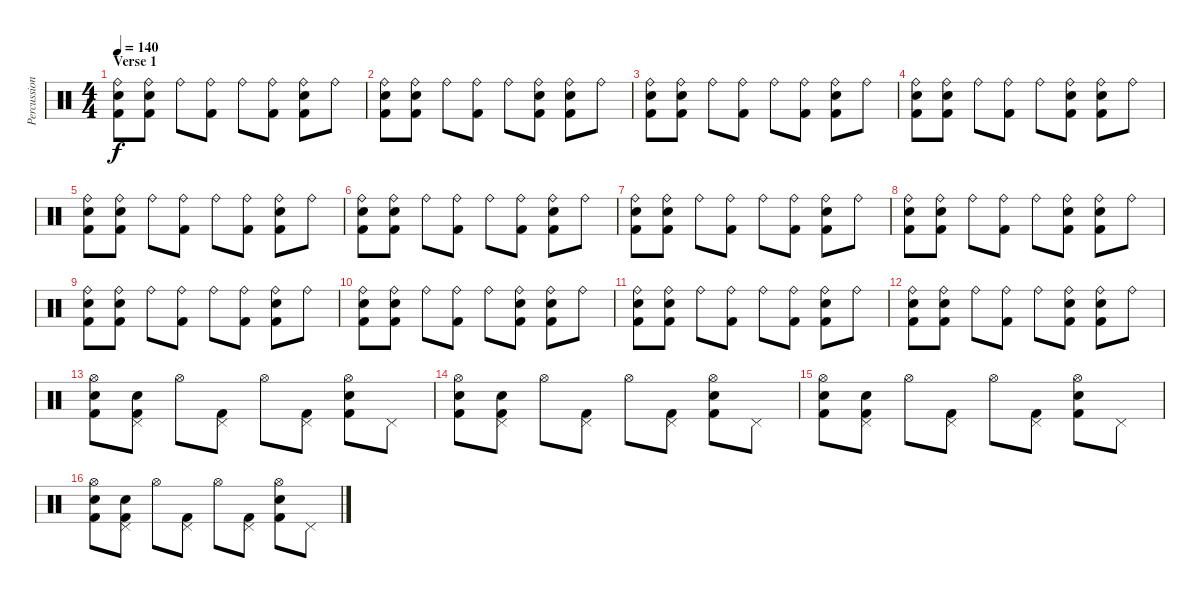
\track ("Percussion" "Percussion") {instrument percussion}
\staff {score}
\articulation defaults
\ts (4 4)
\section ("" "Verse 1")
\tempo 140
\clef neutral
\ks c
("Ride (bell)" "Electric Snare (hit)" "Kick (hit) 2").8{dy f} ("Ride (bell)" "Electric Snare (hit)" "Kick (hit) 2").8 "Ride (bell)".8 ("Ride (bell)" "Kick (hit) 2").8 "Ride (bell)".8 ("Ride (bell)" "Kick (hit) 2").8 ("Ride (bell)" "Electric Snare (hit)" "Kick (hit) 2").8 "Ride (bell)".8 |
("Ride (bell)" "Electric Snare (hit)" "Kick (hit) 2").8 ("Ride (bell)" "Electric Snare (hit)" "Kick (hit) 2").8 "Ride (bell)".8 ("Ride (bell)" "Kick (hit) 2").8 "Ride (bell)".8 ("Ride (bell)" "Electric Snare (hit)" "Kick (hit) 2").8 ("Ride (bell)" "Electric Snare (hit)" "Kick (hit) 2").8 "Ride (bell)".8 |
("Ride (bell)" "Electric Snare (hit)" "Kick (hit) 2").8 ("Ride (bell)" "Electric Snare (hit)" "Kick (hit) 2").8 "Ride (bell)".8 ("Ride (bell)" "Kick (hit) 2").8 "Ride (bell)".8 ("Ride (bell)" "Kick (hit) 2").8 ("Ride (bell)" "Electric Snare (hit)" "Kick (hit) 2").8 "Ride (bell)".8 |
("Ride (bell)" "Electric Snare (hit)" "Kick (hit) 2").8 ("Ride (bell)" "Electric Snare (hit)" "Kick (hit) 2").8 "Ride (bell)".8 ("Ride (bell)" "Kick (hit) 2").8 "Ride (bell)".8 ("Ride (bell)" "Electric Snare (hit)" "Kick (hit) 2").8 ("Ride (bell)" "Electric Snare (hit)" "Kick (hit) 2").8 "Ride (bell)".8 |
("Ride (bell)" "Electric Snare (hit)" "Kick (hit) 2").8 ("Ride (bell)" "Electric Snare (hit)" "Kick (hit) 2").8 "Ride (bell)".8 ("Ride (bell)" "Kick (hit) 2").8 "Ride (bell)".8 ("Ride (bell)" "Kick (hit) 2").8 ("Ride (bell)" "Electric Snare (hit)" "Kick (hit) 2").8 "Ride (bell)".8 |
("Ride (bell)" "Electric Snare (hit)" "Kick (hit) 2").8 ("Ride (bell)" "Electric Snare (hit)" "Kick (hit) 2").8 "Ride (bell)".8 ("Ride (bell)" "Kick (hit) 2").8 "Ride (bell)".8 ("Ride (bell)" "Kick (hit) 2").8 ("Ride (bell)" "Electric Snare (hit)" "Kick (hit) 2").8 "Ride (bell)".8 |
("Ride (bell)" "Electric Snare (hit)" "Kick (hit) 2").8 ("Ride (bell)" "Electric Snare (hit)" "Kick (hit) 2").8 "Ride (bell)".8 ("Ride (bell)" "Kick (hit) 2").8 "Ride (bell)".8 ("Ride (bell)" "Kick (hit) 2").8 ("Ride (bell)" "Electric Snare (hit)" "Kick (hit) 2").8 "Ride (bell)".8 |
("Ride (bell)" "Electric Snare (hit)" "Kick (hit) 2").8 ("Ride (bell)" "Electric Snare (hit)" "Kick (hit) 2").8 "Ride (bell)".8 ("Ride (bell)" "Kick (hit) 2").8 "Ride (bell)".8 ("Ride (bell)" "Electric Snare (hit)" "Kick (hit) 2").8 ("Ride (bell)" "Electric Snare (hit)" "Kick (hit) 2").8 "Ride (bell)".8 |
("Ride (bell)" "Electric Snare (hit)" "Kick (hit) 2").8 ("Ride (bell)" "Electric Snare (hit)" "Kick (hit) 2").8 "Ride (bell)".8 ("Ride (bell)" "Kick (hit) 2").8 "Ride (bell)".8 ("Ride (bell)" "Kick (hit) 2").8 ("Ride (bell)" "Electric Snare (hit)" "Kick (hit) 2").8 "Ride (bell)".8 |
("Ride (bell)" "Electric Snare (hit)" "Kick (hit) 2").8 ("Ride (bell)" "Electric Snare (hit)" "Kick (hit) 2").8 "Ride (bell)".8 ("Ride (bell)" "Kick (hit) 2").8 "Ride (bell)".8 ("Ride (bell)" "Electric Snare (hit)" "Kick (hit) 2").8 ("Ride (bell)" "Electric Snare (hit)" "Kick (hit) 2").8 "Ride (bell)".8 |
("Ride (bell)" "Electric Snare (hit)" "Kick (hit) 2").8 ("Ride (bell)" "Electric Snare (hit)" "Kick (hit) 2").8 "Ride (bell)".8 ("Ride (bell)" "Kick (hit) 2").8 "Ride (bell)".8 ("Ride (bell)" "Kick (hit) 2").8 ("Ride (bell)" "Electric Snare (hit)" "Kick (hit) 2").8 "Ride (bell)".8 |
("Ride (bell)" "Electric Snare (hit)" "Kick (hit) 2").8 ("Ride (bell)" "Electric Snare (hit)" "Kick (hit) 2").8 "Ride (bell)".8 ("Ride (bell)" "Kick (hit) 2").8 "Ride (bell)".8 ("Ride (bell)" "Electric Snare (hit)" "Kick (hit) 2").8 ("Ride (bell)" "Electric Snare (hit)" "Kick (hit) 2").8 "Ride (bell)".8 |
("Hi-Hat (open)" "Electric Snare (hit)" "Kick (hit) 2").8 ("Pedal Hi-Hat (hit)" "Electric Snare (hit)" "Kick (hit) 2").8 "Hi-Hat (open)".8 ("Pedal Hi-Hat (hit)" "Kick (hit) 2").8 "Hi-Hat (open)".8 ("Pedal Hi-Hat (hit)" "Kick (hit) 2").8 ("Hi-Hat (open)" "Electric Snare (hit)" "Kick (hit) 2").8 "Pedal Hi-Hat (hit)".8 |
("Hi-Hat (open)" "Electric Snare (hit)" "Kick (hit) 2").8 ("Pedal Hi-Hat (hit)" "Electric Snare (hit)" "Kick (hit) 2").8 "Hi-Hat (open)".8 ("Pedal Hi-Hat (hit)" "Kick (hit) 2").8 "Hi-Hat (open)".8 ("Pedal Hi-Hat (hit)" "Kick (hit) 2").8 ("Hi-Hat (open)" "Electric Snare (hit)" "Kick (hit) 2").8 "Pedal Hi-Hat (hit)".8 |
("Hi-Hat (open)" "Electric Snare (hit)" "Kick (hit) 2").8 ("Pedal Hi-Hat (hit)" "Electric Snare (hit)" "Kick (hit) 2").8 "Hi-Hat (open)".8 ("Pedal Hi-Hat (hit)" "Kick (hit) 2").8 "Hi-Hat (open)".8 ("Pedal Hi-Hat (hit)" "Kick (hit) 2").8 ("Hi-Hat (open)" "Electric Snare (hit)" "Kick (hit) 2").8 "Pedal Hi-Hat (hit)".8 |
("Hi-Hat (open)" "Electric Snare (hit)" "Kick (hit) 2").8 ("Pedal Hi-Hat (hit)" "Electric Snare (hit)" "Kick (hit) 2").8 "Hi-Hat (open)".8 ("Pedal Hi-Hat (hit)" "Kick (hit) 2").8 "Hi-Hat (open)".8 ("Pedal Hi-Hat (hit)" "Kick (hit) 2").8 ("Hi-Hat (open)" "Electric Snare (hit)" "Kick (hit) 2").8 "Pedal Hi-Hat (hit)".8
